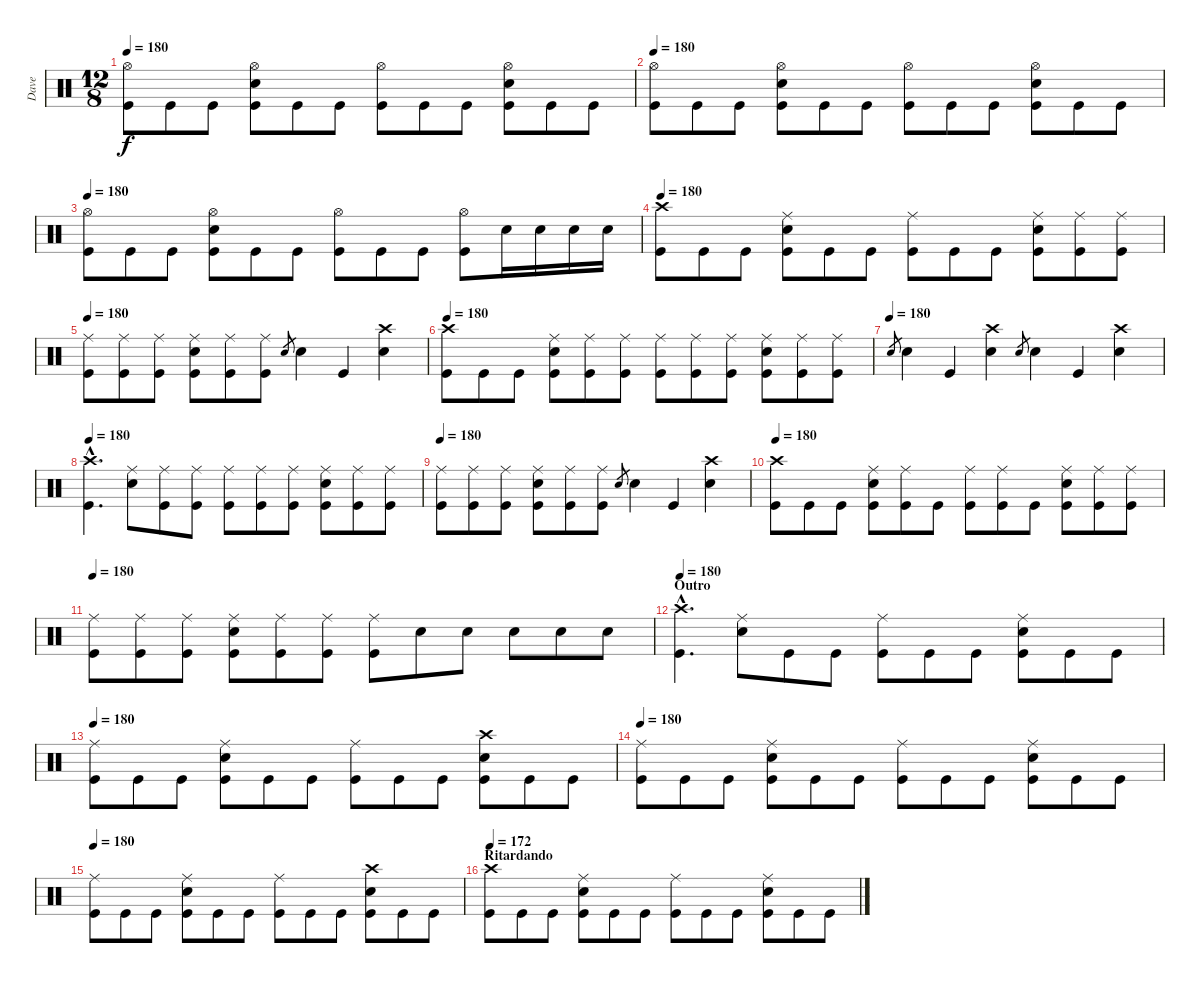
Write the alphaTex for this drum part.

\track ("Dave" "Dave") {instrument percussion}
\staff {score}
\articulation defaults
\ts (12 8)
\tempo 180
\clef neutral
\ks c
("Hi-Hat (open)" "Kick (hit)").8{dy f} "Kick (hit)".8 "Kick (hit)".8 ("Hi-Hat (open)" "Snare (hit) 2" "Kick (hit)").8 "Kick (hit)".8 "Kick (hit)".8 ("Hi-Hat (open)" "Kick (hit)").8 "Kick (hit)".8 "Kick (hit)".8 ("Hi-Hat (open)" "Snare (hit) 2" "Kick (hit)").8 "Kick (hit)".8 "Kick (hit)".8 |
\tempo 180
("Hi-Hat (open)" "Kick (hit)").8 "Kick (hit)".8 "Kick (hit)".8 ("Hi-Hat (open)" "Snare (hit) 2" "Kick (hit)").8 "Kick (hit)".8 "Kick (hit)".8 ("Hi-Hat (open)" "Kick (hit)").8 "Kick (hit)".8 "Kick (hit)".8 ("Hi-Hat (open)" "Snare (hit) 2" "Kick (hit)").8 "Kick (hit)".8 "Kick (hit)".8 |
\tempo 180
("Hi-Hat (open)" "Kick (hit)").8 "Kick (hit)".8 "Kick (hit)".8 ("Hi-Hat (open)" "Snare (hit) 2" "Kick (hit)").8 "Kick (hit)".8 "Kick (hit)".8 ("Hi-Hat (open)" "Kick (hit)").8 "Kick (hit)".8 "Kick (hit)".8 ("Hi-Hat (open)" "Kick (hit)").8 "Snare (hit) 2".16 "Snare (hit) 2".16 "Snare (hit) 2".16 "Snare (hit) 2".16 |
\tempo 180
("Crash high (hit)" "Kick (hit)").8 "Kick (hit)".8 "Kick (hit)".8 ("Ride (middle)" "Snare (hit) 2" "Kick (hit)").8 "Kick (hit)".8 "Kick (hit)".8 ("Ride (middle)" "Kick (hit)").8 "Kick (hit)".8 "Kick (hit)".8 ("Ride (middle)" "Snare (hit) 2" "Kick (hit)").8 ("Ride (middle)" "Kick (hit)").8 ("Ride (middle)" "Kick (hit)").8 |
\tempo 180
("Ride (middle)" "Kick (hit)").8 ("Ride (middle)" "Kick (hit)").8 ("Ride (middle)" "Kick (hit)").8 ("Ride (middle)" "Snare (hit) 2" "Kick (hit)").8 ("Ride (middle)" "Kick (hit)").8 ("Ride (middle)" "Kick (hit)").8 "Snare (hit) 2".8{gr} "Snare (hit) 2".4 "Kick (hit)".4 ("Crash high (hit)" "Snare (hit) 2").4 |
\tempo 180
("Crash high (hit)" "Kick (hit)").8 "Kick (hit)".8 "Kick (hit)".8 ("Ride (middle)" "Snare (hit) 2" "Kick (hit)").8 ("Ride (middle)" "Kick (hit)").8 ("Ride (middle)" "Kick (hit)").8 ("Ride (middle)" "Kick (hit)").8 ("Ride (middle)" "Kick (hit)").8 ("Ride (middle)" "Kick (hit)").8 ("Ride (middle)" "Snare (hit) 2" "Kick (hit)").8 ("Ride (middle)" "Kick (hit)").8 ("Ride (middle)" "Kick (hit)").8 |
\tempo (180)
"Snare (hit) 2".8{gr} "Snare (hit) 2".4 "Kick (hit)".4 ("Crash high (hit)" "Snare (hit) 2").4 "Snare (hit) 2".8{gr} "Snare (hit) 2".4 "Kick (hit)".4 ("Crash high (hit)" "Snare (hit) 2").4 |
\tempo 180
("Crash high (hit)"{hac} "Kick (hit)"{hac}).4{d} ("Ride (middle)" "Snare (hit) 2").8 ("Ride (middle)" "Kick (hit)").8 ("Ride (middle)" "Kick (hit)").8 ("Ride (middle)" "Kick (hit)").8 ("Ride (middle)" "Kick (hit)").8 ("Ride (middle)" "Kick (hit)").8 ("Ride (middle)" "Snare (hit) 2" "Kick (hit)").8 ("Ride (middle)" "Kick (hit)").8 ("Ride (middle)" "Kick (hit)").8 |
\tempo 180
("Ride (middle)" "Kick (hit)").8 ("Ride (middle)" "Kick (hit)").8 ("Ride (middle)" "Kick (hit)").8 ("Ride (middle)" "Snare (hit) 2" "Kick (hit)").8 ("Ride (middle)" "Kick (hit)").8 ("Ride (middle)" "Kick (hit)").8 "Snare (hit) 2".8{gr} "Snare (hit) 2".4 "Kick (hit)".4 ("Crash high (hit)" "Snare (hit) 2").4 |
\tempo 180
("Crash high (hit)" "Kick (hit)").8 "Kick (hit)".8 "Kick (hit)".8 ("Ride (middle)" "Snare (hit) 2" "Kick (hit)").8 ("Ride (middle)" "Kick (hit)").8 "Kick (hit)".8 ("Ride (middle)" "Kick (hit)").8 ("Ride (middle)" "Kick (hit)").8 "Kick (hit)".8 ("Ride (middle)" "Snare (hit) 2" "Kick (hit)").8 ("Ride (middle)" "Kick (hit)").8 ("Ride (middle)" "Kick (hit)").8 |
\tempo 180
("Ride (middle)" "Kick (hit)").8 ("Ride (middle)" "Kick (hit)").8 ("Ride (middle)" "Kick (hit)").8 ("Ride (middle)" "Snare (hit) 2" "Kick (hit)").8 ("Ride (middle)" "Kick (hit)").8 ("Ride (middle)" "Kick (hit)").8 ("Ride (middle)" "Kick (hit)").8 "Snare (hit) 2".8 "Snare (hit) 2".8 "Snare (hit) 2".8 "Snare (hit) 2".8 "Snare (hit) 2".8 |
\section ("" "Outro")
\tempo 180
("Crash high (hit)"{hac} "Kick (hit)"{hac}).4{d} ("Ride (middle)" "Snare (hit) 2").8 "Kick (hit)".8 "Kick (hit)".8 ("Ride (middle)" "Kick (hit)").8 "Kick (hit)".8 "Kick (hit)".8 ("Ride (middle)" "Snare (hit) 2" "Kick (hit)").8 "Kick (hit)".8 "Kick (hit)".8 |
\tempo 180
("Ride (middle)" "Kick (hit)").8 "Kick (hit)".8 "Kick (hit)".8 ("Ride (middle)" "Snare (hit) 2" "Kick (hit)").8 "Kick (hit)".8 "Kick (hit)".8 ("Ride (middle)" "Kick (hit)").8 "Kick (hit)".8 "Kick (hit)".8 ("Crash high (hit)" "Snare (hit) 2" "Kick (hit)").8 "Kick (hit)".8 "Kick (hit)".8 |
\tempo 180
("Ride (middle)" "Kick (hit)").8 "Kick (hit)".8 "Kick (hit)".8 ("Ride (middle)" "Snare (hit) 2" "Kick (hit)").8 "Kick (hit)".8 "Kick (hit)".8 ("Ride (middle)" "Kick (hit)").8 "Kick (hit)".8 "Kick (hit)".8 ("Ride (middle)" "Snare (hit) 2" "Kick (hit)").8 "Kick (hit)".8 "Kick (hit)".8 |
\tempo 180
("Ride (middle)" "Kick (hit)").8 "Kick (hit)".8 "Kick (hit)".8 ("Ride (middle)" "Snare (hit) 2" "Kick (hit)").8 "Kick (hit)".8 "Kick (hit)".8 ("Ride (middle)" "Kick (hit)").8 "Kick (hit)".8 "Kick (hit)".8 ("Crash high (hit)" "Snare (hit) 2" "Kick (hit)").8 "Kick (hit)".8 "Kick (hit)".8 |
\section ("" "Ritardando")
\tempo 172
("Crash high (hit)" "Kick (hit)").8 "Kick (hit)".8 "Kick (hit)".8 ("Ride (middle)" "Snare (hit) 2" "Kick (hit)").8 "Kick (hit)".8 "Kick (hit)".8 ("Ride (middle)" "Kick (hit)").8 "Kick (hit)".8 "Kick (hit)".8 ("Ride (middle)" "Snare (hit) 2" "Kick (hit)").8 "Kick (hit)".8 "Kick (hit)".8
